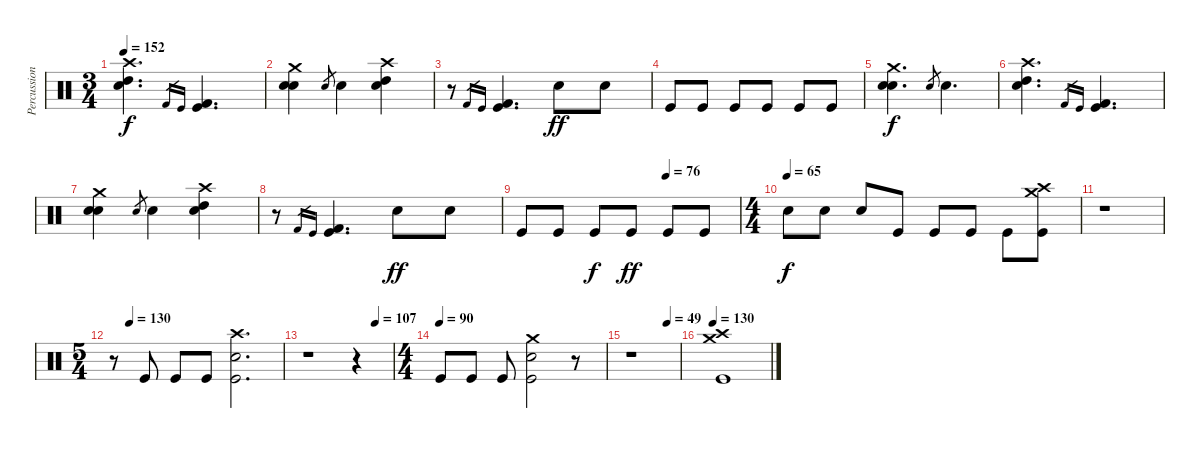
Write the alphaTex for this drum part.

\track ("Percussion" "Percussion") {instrument percussion}
\staff {score}
\articulation defaults
\ts (3 4)
\tempo 152
\clef neutral
\ks c
("Crash high (hit)" "High Tom (hit)" "Electric Snare (hit)").4{d dy f} "Kick (hit) 2".16{gr} "Kick (hit)".16{gr} ("Kick (hit) 2" "Kick (hit)").4{d} |
("Crash medium (hit)" "Snare (hit) 2" "Electric Snare (hit)").4 "Snare (hit) 2".8{gr} "Snare (hit) 2".4 ("Crash high (hit)" "High Tom (hit)" "Electric Snare (hit)").4 |
r.8 "Kick (hit) 2".16{gr} "Kick (hit)".16{gr} ("Kick (hit) 2" "Kick (hit)").4{d} "Snare (hit) 2".8{dy ff} "Snare (hit) 2".8 |
"Kick (hit)".8 "Kick (hit)".8 "Kick (hit)".8 "Kick (hit)".8 "Kick (hit)".8 "Kick (hit)".8 |
("Crash medium (hit)" "Snare (hit) 2" "Electric Snare (hit)").4{d dy f} "Snare (hit) 2".8{gr} "Snare (hit) 2".4{d} |
("Crash high (hit)" "High Tom (hit)" "Electric Snare (hit)").4{d} "Kick (hit) 2".16{gr} "Kick (hit)".16{gr} ("Kick (hit) 2" "Kick (hit)").4{d} |
("Crash medium (hit)" "Snare (hit) 2" "Electric Snare (hit)").4 "Snare (hit) 2".8{gr} "Snare (hit) 2".4 ("Crash high (hit)" "High Tom (hit)" "Electric Snare (hit)").4 |
r.8 "Kick (hit) 2".16{gr} "Kick (hit)".16{gr} ("Kick (hit) 2" "Kick (hit)").4{d} "Snare (hit) 2".8{dy ff} "Snare (hit) 2".8 |
\tempo (76 0.6666666666666666)
"Kick (hit)".8 "Kick (hit)".8 "Kick (hit)".8{dy f} "Kick (hit)".8{dy ff} "Kick (hit)".8 "Kick (hit)".8 |
\ts (4 4)
\tempo (65)
"Snare (hit) 2".8{dy f} "Snare (hit) 2".8 "Snare (hit) 2".8 "Kick (hit)".8 "Kick (hit)".8 "Kick (hit)".8 "Kick (hit)".8 ("Crash high (hit)" "Crash medium (hit)" "Kick (hit)").8 |
r.1 |
\ts (5 4)
\tempo (130 0.1)
r.8 "Kick (hit)".8 "Kick (hit)".8 "Kick (hit)".8 ("Crash high (hit)" "Electric Snare (hit)" "Kick (hit)").2{d} |
\tempo (107 0.8)
r.1 r.4 |
\ts (4 4)
\tempo (90)
"Kick (hit)".8 "Kick (hit)".8 "Kick (hit)".8 ("Crash medium (hit)" "Electric Snare (hit)" "Kick (hit)").2 r.8 |
\tempo (49 0.75)
r.1 |
\tempo 130
("Crash medium (hit)" "Crash high (hit)" "Kick (hit)").1
